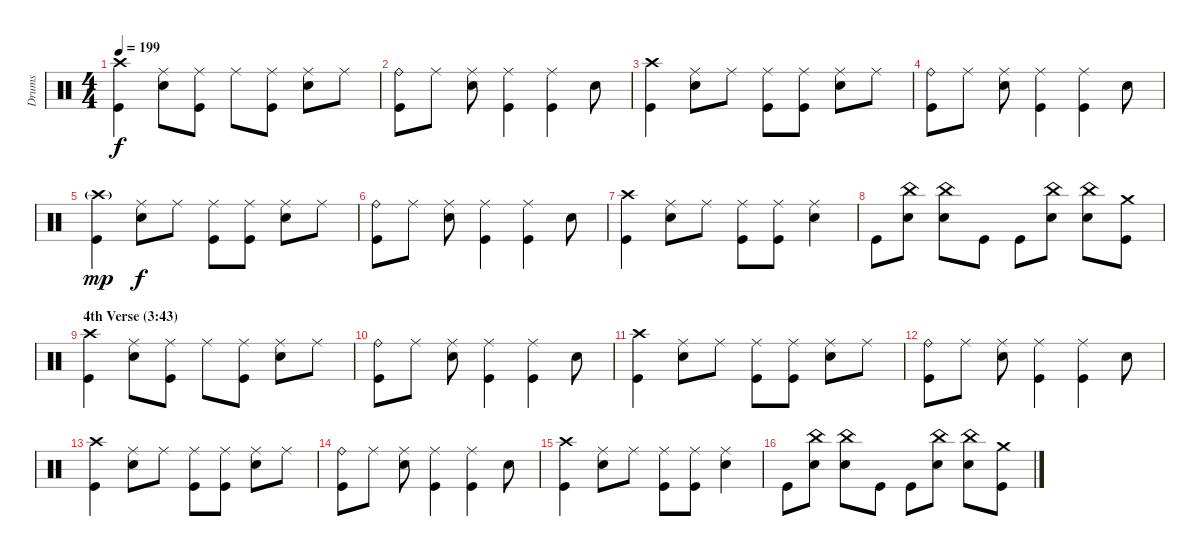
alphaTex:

\track ("Drums" "Drums") {instrument percussion}
\staff {score}
\articulation defaults
\ts (4 4)
\tempo 199
\clef neutral
\ks c
("Crash high (hit)" "Kick (hit)").4{dy f} ("Ride (middle)" "Snare (hit) 2").8 ("Ride (middle)" "Kick (hit)").8 "Ride (middle)".8 ("Ride (middle)" "Kick (hit)").8 ("Ride (middle)" "Snare (hit) 2").8 "Ride (middle)".8 |
("Ride (bell)" "Kick (hit)").8 "Ride (middle)".8 ("Ride (middle)" "Snare (hit) 2").8 ("Ride (middle)" "Kick (hit)").4 ("Ride (middle)" "Kick (hit)").4 "Snare (hit) 2".8 |
("Crash high (hit)" "Kick (hit)").4 ("Ride (middle)" "Snare (hit) 2").8 "Ride (middle)".8 ("Ride (middle)" "Kick (hit)").8 ("Ride (middle)" "Kick (hit)").8 ("Ride (middle)" "Snare (hit) 2").8 "Ride (middle)".8 |
("Ride (bell)" "Kick (hit)").8 "Ride (middle)".8 ("Ride (middle)" "Snare (hit) 2").8 ("Ride (middle)" "Kick (hit)").4 ("Ride (middle)" "Kick (hit)").4 "Snare (hit) 2".8 |
("Crash high (hit)"{g} "Kick (hit)").4{dy mp} ("Ride (middle)" "Snare (hit) 2").8{dy f} "Ride (middle)".8 ("Ride (middle)" "Kick (hit)").8 ("Ride (middle)" "Kick (hit)").8 ("Ride (middle)" "Snare (hit) 2").8 "Ride (middle)".8 |
("Ride (bell)" "Kick (hit)").8 "Ride (middle)".8 ("Ride (middle)" "Snare (hit) 2").8 ("Ride (middle)" "Kick (hit)").4 ("Ride (middle)" "Kick (hit)").4 "Snare (hit) 2".8 |
("Crash high (hit)" "Kick (hit)").4 ("Ride (middle)" "Snare (hit) 2").8 "Ride (middle)".8 ("Ride (middle)" "Kick (hit)").8 ("Ride (middle)" "Kick (hit)").8 ("Ride (middle)" "Snare (hit) 2").4 |
"Kick (hit)".8 ("China (hit)" "Snare (hit) 2").8 ("China (hit)" "Snare (hit) 2").8 "Kick (hit)".8 "Kick (hit)".8 ("China (hit)" "Snare (hit) 2").8 ("China (hit)" "Snare (hit) 2").8 ("Crash medium (hit)" "Kick (hit)").8 |
\section ("" "4th Verse (3:43)")
("Crash high (hit)" "Kick (hit)").4 ("Ride (middle)" "Snare (hit) 2").8 ("Ride (middle)" "Kick (hit)").8 "Ride (middle)".8 ("Ride (middle)" "Kick (hit)").8 ("Ride (middle)" "Snare (hit) 2").8 "Ride (middle)".8 |
("Ride (bell)" "Kick (hit)").8 "Ride (middle)".8 ("Ride (middle)" "Snare (hit) 2").8 ("Ride (middle)" "Kick (hit)").4 ("Ride (middle)" "Kick (hit)").4 "Snare (hit) 2".8 |
("Crash high (hit)" "Kick (hit)").4 ("Ride (middle)" "Snare (hit) 2").8 "Ride (middle)".8 ("Ride (middle)" "Kick (hit)").8 ("Ride (middle)" "Kick (hit)").8 ("Ride (middle)" "Snare (hit) 2").8 "Ride (middle)".8 |
("Ride (bell)" "Kick (hit)").8 "Ride (middle)".8 ("Ride (middle)" "Snare (hit) 2").8 ("Ride (middle)" "Kick (hit)").4 ("Ride (middle)" "Kick (hit)").4 "Snare (hit) 2".8 |
("Crash high (hit)" "Kick (hit)").4 ("Ride (middle)" "Snare (hit) 2").8 "Ride (middle)".8 ("Ride (middle)" "Kick (hit)").8 ("Ride (middle)" "Kick (hit)").8 ("Ride (middle)" "Snare (hit) 2").8 "Ride (middle)".8 |
("Ride (bell)" "Kick (hit)").8 "Ride (middle)".8 ("Ride (middle)" "Snare (hit) 2").8 ("Ride (middle)" "Kick (hit)").4 ("Ride (middle)" "Kick (hit)").4 "Snare (hit) 2".8 |
("Crash high (hit)" "Kick (hit)").4 ("Ride (middle)" "Snare (hit) 2").8 "Ride (middle)".8 ("Ride (middle)" "Kick (hit)").8 ("Ride (middle)" "Kick (hit)").8 ("Ride (middle)" "Snare (hit) 2").4 |
"Kick (hit)".8 ("China (hit)" "Snare (hit) 2").8 ("China (hit)" "Snare (hit) 2").8 "Kick (hit)".8 "Kick (hit)".8 ("China (hit)" "Snare (hit) 2").8 ("China (hit)" "Snare (hit) 2").8 ("Crash medium (hit)" "Kick (hit)").8
